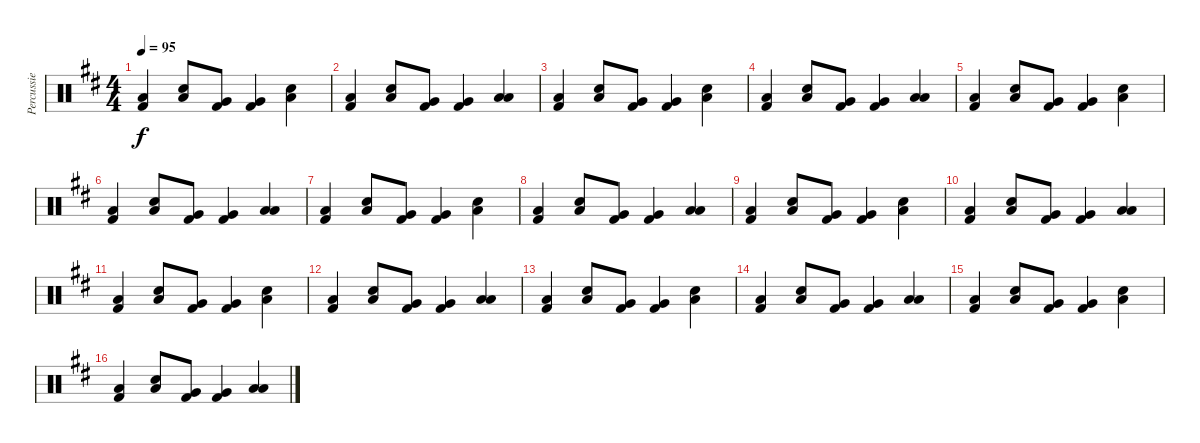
\track ("Percussie" "Percussie") {instrument percussion}
\staff {score}
\articulation defaults
\ts (4 4)
\tempo 95
\clef neutral
\ks d
("Low Tom (hit)" "Kick (hit) 2").4{dy f} ("Electric Snare (hit)" "Low Tom (hit)").8 ("Very Low Tom (hit)" "Kick (hit) 2").8 ("Very Low Tom (hit)" "Kick (hit) 2").4 ("Electric Snare (hit)" "Low Tom (hit)").4 |
("Low Tom (hit)" "Kick (hit) 2").4 ("Electric Snare (hit)" "Low Floor Tom (hit)").8 ("Very Low Tom (hit)" "Kick (hit) 2").8 ("Very Low Tom (hit)" "Kick (hit) 2").4 ("Low Tom (hit)" "Low Floor Tom (hit)").4 |
("Low Tom (hit)" "Kick (hit) 2").4 ("Electric Snare (hit)" "Low Tom (hit)").8 ("Very Low Tom (hit)" "Kick (hit) 2").8 ("Very Low Tom (hit)" "Kick (hit) 2").4 ("Electric Snare (hit)" "Low Tom (hit)").4 |
("Low Tom (hit)" "Kick (hit) 2").4 ("Electric Snare (hit)" "Low Floor Tom (hit)").8 ("Very Low Tom (hit)" "Kick (hit) 2").8 ("Very Low Tom (hit)" "Kick (hit) 2").4 ("Low Tom (hit)" "Low Floor Tom (hit)").4 |
("Low Tom (hit)" "Kick (hit) 2").4 ("Electric Snare (hit)" "Low Tom (hit)").8 ("Very Low Tom (hit)" "Kick (hit) 2").8 ("Very Low Tom (hit)" "Kick (hit) 2").4 ("Electric Snare (hit)" "Low Tom (hit)").4 |
("Low Tom (hit)" "Kick (hit) 2").4 ("Electric Snare (hit)" "Low Floor Tom (hit)").8 ("Very Low Tom (hit)" "Kick (hit) 2").8 ("Very Low Tom (hit)" "Kick (hit) 2").4 ("Low Tom (hit)" "Low Floor Tom (hit)").4 |
("Low Tom (hit)" "Kick (hit) 2").4 ("Electric Snare (hit)" "Low Tom (hit)").8 ("Very Low Tom (hit)" "Kick (hit) 2").8 ("Very Low Tom (hit)" "Kick (hit) 2").4 ("Electric Snare (hit)" "Low Tom (hit)").4 |
("Low Tom (hit)" "Kick (hit) 2").4 ("Electric Snare (hit)" "Low Floor Tom (hit)").8 ("Very Low Tom (hit)" "Kick (hit) 2").8 ("Very Low Tom (hit)" "Kick (hit) 2").4 ("Low Tom (hit)" "Low Floor Tom (hit)").4 |
("Low Tom (hit)" "Kick (hit) 2").4 ("Electric Snare (hit)" "Low Tom (hit)").8 ("Very Low Tom (hit)" "Kick (hit) 2").8 ("Very Low Tom (hit)" "Kick (hit) 2").4 ("Electric Snare (hit)" "Low Tom (hit)").4 |
("Low Tom (hit)" "Kick (hit) 2").4 ("Electric Snare (hit)" "Low Floor Tom (hit)").8 ("Very Low Tom (hit)" "Kick (hit) 2").8 ("Very Low Tom (hit)" "Kick (hit) 2").4 ("Low Tom (hit)" "Low Floor Tom (hit)").4 |
("Low Tom (hit)" "Kick (hit) 2").4 ("Electric Snare (hit)" "Low Tom (hit)").8 ("Very Low Tom (hit)" "Kick (hit) 2").8 ("Very Low Tom (hit)" "Kick (hit) 2").4 ("Electric Snare (hit)" "Low Tom (hit)").4 |
("Low Tom (hit)" "Kick (hit) 2").4 ("Electric Snare (hit)" "Low Floor Tom (hit)").8 ("Very Low Tom (hit)" "Kick (hit) 2").8 ("Very Low Tom (hit)" "Kick (hit) 2").4 ("Low Tom (hit)" "Low Floor Tom (hit)").4 |
("Low Tom (hit)" "Kick (hit) 2").4 ("Electric Snare (hit)" "Low Tom (hit)").8 ("Very Low Tom (hit)" "Kick (hit) 2").8 ("Very Low Tom (hit)" "Kick (hit) 2").4 ("Electric Snare (hit)" "Low Tom (hit)").4 |
("Low Tom (hit)" "Kick (hit) 2").4 ("Electric Snare (hit)" "Low Floor Tom (hit)").8 ("Very Low Tom (hit)" "Kick (hit) 2").8 ("Very Low Tom (hit)" "Kick (hit) 2").4 ("Low Tom (hit)" "Low Floor Tom (hit)").4 |
("Low Tom (hit)" "Kick (hit) 2").4 ("Electric Snare (hit)" "Low Tom (hit)").8 ("Very Low Tom (hit)" "Kick (hit) 2").8 ("Very Low Tom (hit)" "Kick (hit) 2").4 ("Electric Snare (hit)" "Low Tom (hit)").4 |
("Low Tom (hit)" "Kick (hit) 2").4 ("Electric Snare (hit)" "Low Floor Tom (hit)").8 ("Very Low Tom (hit)" "Kick (hit) 2").8 ("Very Low Tom (hit)" "Kick (hit) 2").4 ("Low Tom (hit)" "Low Floor Tom (hit)").4
